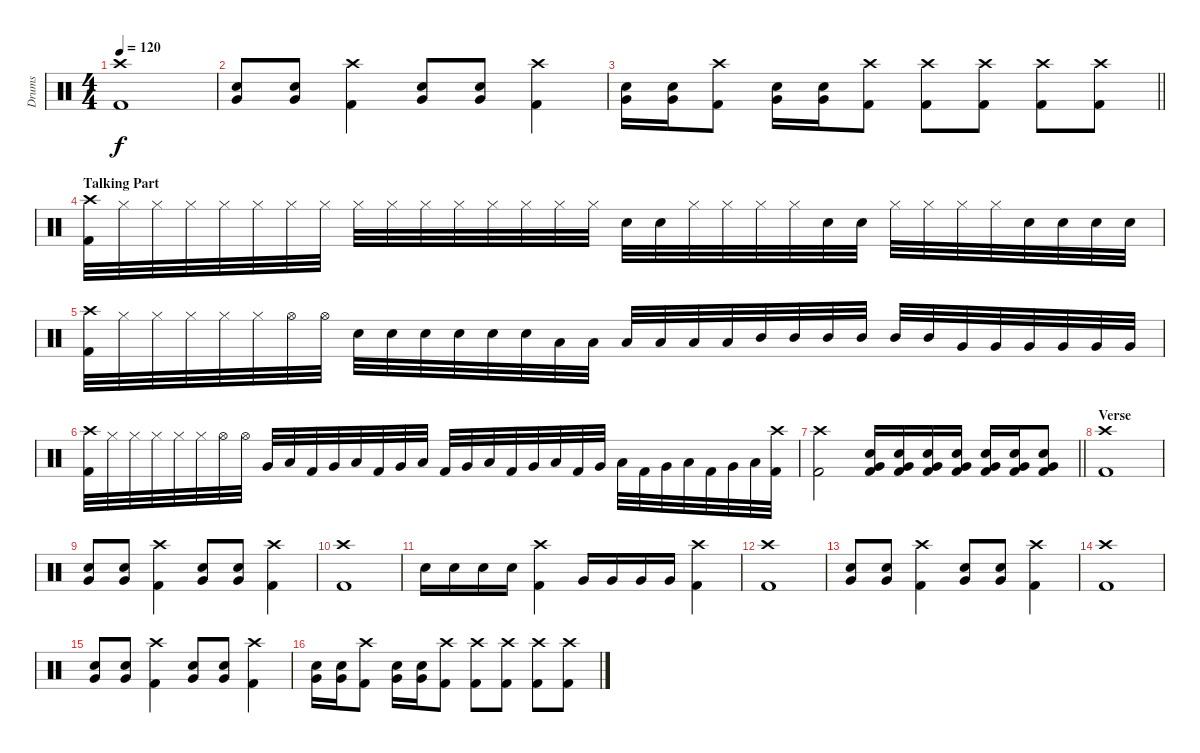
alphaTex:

\track ("Drums" "Drums") {instrument percussion}
\staff {score}
\articulation defaults
\ts (4 4)
\tempo 120
\clef neutral
\ks c
("Crash high (hit)" "Kick (hit) 2").1{dy f} |
("Very Low Tom (hit)" "Electric Snare (hit)").8 ("Very Low Tom (hit)" "Electric Snare (hit)").8 ("Crash high (hit)" "Kick (hit) 2").4 ("Very Low Tom (hit)" "Electric Snare (hit)").8 ("Very Low Tom (hit)" "Electric Snare (hit)").8 ("Crash high (hit)" "Kick (hit) 2").4 |
\barLineRight lightlight
("Very Low Tom (hit)" "Electric Snare (hit)").16 ("Very Low Tom (hit)" "Electric Snare (hit)").16 ("Crash high (hit)" "Kick (hit) 2").8 ("Very Low Tom (hit)" "Electric Snare (hit)").16 ("Very Low Tom (hit)" "Electric Snare (hit)").16 ("Crash high (hit)" "Kick (hit) 2").8 ("Crash high (hit)" "Kick (hit) 2").8 ("Crash high (hit)" "Kick (hit) 2").8 ("Crash high (hit)" "Kick (hit) 2").8 ("Crash high (hit)" "Kick (hit) 2").8 |
\section ("" "Talking Part")
("Crash high (hit)" "Kick (hit) 2").32 "Hi-Hat (closed)".32 "Hi-Hat (closed)".32 "Hi-Hat (closed)".32 "Hi-Hat (closed)".32 "Hi-Hat (closed)".32 "Hi-Hat (closed)".32 "Hi-Hat (closed)".32 "Hi-Hat (closed)".32 "Hi-Hat (closed)".32 "Hi-Hat (closed)".32 "Hi-Hat (closed)".32 "Hi-Hat (closed)".32 "Hi-Hat (closed)".32 "Hi-Hat (closed)".32 "Hi-Hat (closed)".32 "Electric Snare (hit)".32 "Electric Snare (hit)".32 "Hi-Hat (closed)".32 "Hi-Hat (closed)".32 "Hi-Hat (closed)".32 "Hi-Hat (closed)".32 "Electric Snare (hit)".32 "Electric Snare (hit)".32 "Hi-Hat (closed)".32 "Hi-Hat (closed)".32 "Hi-Hat (closed)".32 "Hi-Hat (closed)".32 "Electric Snare (hit)".32 "Electric Snare (hit)".32 "Electric Snare (hit)".32 "Electric Snare (hit)".32 |
("Crash high (hit)" "Kick (hit) 2").32 "Hi-Hat (closed)".32 "Hi-Hat (closed)".32 "Hi-Hat (closed)".32 "Hi-Hat (closed)".32 "Hi-Hat (closed)".32 "Hi-Hat (open)".32 "Hi-Hat (open)".32 "Electric Snare (hit)".32 "Electric Snare (hit)".32 "Electric Snare (hit)".32 "Electric Snare (hit)".32 "Electric Snare (hit)".32 "Electric Snare (hit)".32 "Low Tom (hit)".32 "Low Tom (hit)".32 "Low Tom (hit)".32 "Low Tom (hit)".32 "Low Tom (hit)".32 "Low Tom (hit)".32 "Mid Tom (hit)".32 "Mid Tom (hit)".32 "Mid Tom (hit)".32 "Mid Tom (hit)".32 "Mid Tom (hit)".32 "Mid Tom (hit)".32 "Very Low Tom (hit)".32 "Very Low Tom (hit)".32 "Very Low Tom (hit)".32 "Very Low Tom (hit)".32 "Very Low Tom (hit)".32 "Very Low Tom (hit)".32 |
("Crash high (hit)" "Kick (hit) 2").32 "Hi-Hat (closed)".32 "Hi-Hat (closed)".32 "Hi-Hat (closed)".32 "Hi-Hat (closed)".32 "Hi-Hat (closed)".32 "Hi-Hat (open)".32 "Hi-Hat (open)".32 "Very Low Tom (hit)".32 "Low Tom (hit)".32 "Kick (hit) 2".32 "Very Low Tom (hit)".32 "Low Tom (hit)".32 "Kick (hit) 2".32 "Very Low Tom (hit)".32 "Low Tom (hit)".32 "Kick (hit) 2".32 "Very Low Tom (hit)".32 "Low Tom (hit)".32 "Kick (hit) 2".32 "Very Low Tom (hit)".32 "Low Tom (hit)".32 "Kick (hit) 2".32 "Very Low Tom (hit)".32 "Low Tom (hit)".32 "Kick (hit) 2".32 "Very Low Tom (hit)".32 "Low Tom (hit)".32 "Kick (hit) 2".32 "Very Low Tom (hit)".32 "Low Tom (hit)".32 ("Crash high (hit)" "Kick (hit) 2").32 |
\barLineRight lightlight
("Crash high (hit)" "Kick (hit) 2").2{volume 4} ("Very Low Tom (hit)" "Electric Snare (hit)" "Kick (hit) 2").16{volume 13} ("Very Low Tom (hit)" "Electric Snare (hit)" "Kick (hit) 2").16 ("Very Low Tom (hit)" "Electric Snare (hit)" "Kick (hit) 2").16 ("Very Low Tom (hit)" "Electric Snare (hit)" "Kick (hit) 2").16 ("Very Low Tom (hit)" "Electric Snare (hit)" "Kick (hit) 2").16 ("Very Low Tom (hit)" "Electric Snare (hit)" "Kick (hit) 2").16 ("Very Low Tom (hit)" "Electric Snare (hit)" "Kick (hit) 2").8 |
\section ("" "Verse")
("Crash high (hit)" "Kick (hit) 2").1 |
("Very Low Tom (hit)" "Electric Snare (hit)").8 ("Very Low Tom (hit)" "Electric Snare (hit)").8 ("Crash high (hit)" "Kick (hit) 2").4 ("Very Low Tom (hit)" "Electric Snare (hit)").8 ("Very Low Tom (hit)" "Electric Snare (hit)").8 ("Crash high (hit)" "Kick (hit) 2").4 |
("Crash high (hit)" "Kick (hit) 2").1 |
"Electric Snare (hit)".16 "Electric Snare (hit)".16 "Electric Snare (hit)".16 "Electric Snare (hit)".16 ("Crash high (hit)" "Kick (hit) 2").4 "Very Low Tom (hit)".16 "Very Low Tom (hit)".16 "Very Low Tom (hit)".16 "Very Low Tom (hit)".16 ("Crash high (hit)" "Kick (hit) 2").4 |
("Crash high (hit)" "Kick (hit) 2").1 |
("Very Low Tom (hit)" "Electric Snare (hit)").8 ("Very Low Tom (hit)" "Electric Snare (hit)").8 ("Crash high (hit)" "Kick (hit) 2").4 ("Very Low Tom (hit)" "Electric Snare (hit)").8 ("Very Low Tom (hit)" "Electric Snare (hit)").8 ("Crash high (hit)" "Kick (hit) 2").4 |
("Crash high (hit)" "Kick (hit) 2").1 |
("Very Low Tom (hit)" "Electric Snare (hit)").8 ("Very Low Tom (hit)" "Electric Snare (hit)").8 ("Crash high (hit)" "Kick (hit) 2").4 ("Very Low Tom (hit)" "Electric Snare (hit)").8 ("Very Low Tom (hit)" "Electric Snare (hit)").8 ("Crash high (hit)" "Kick (hit) 2").4 |
("Very Low Tom (hit)" "Electric Snare (hit)").16 ("Very Low Tom (hit)" "Electric Snare (hit)").16 ("Crash high (hit)" "Kick (hit) 2").8 ("Very Low Tom (hit)" "Electric Snare (hit)").16 ("Very Low Tom (hit)" "Electric Snare (hit)").16 ("Crash high (hit)" "Kick (hit) 2").8 ("Crash high (hit)" "Kick (hit) 2").8 ("Crash high (hit)" "Kick (hit) 2").8 ("Crash high (hit)" "Kick (hit) 2").8 ("Crash high (hit)" "Kick (hit) 2").8
